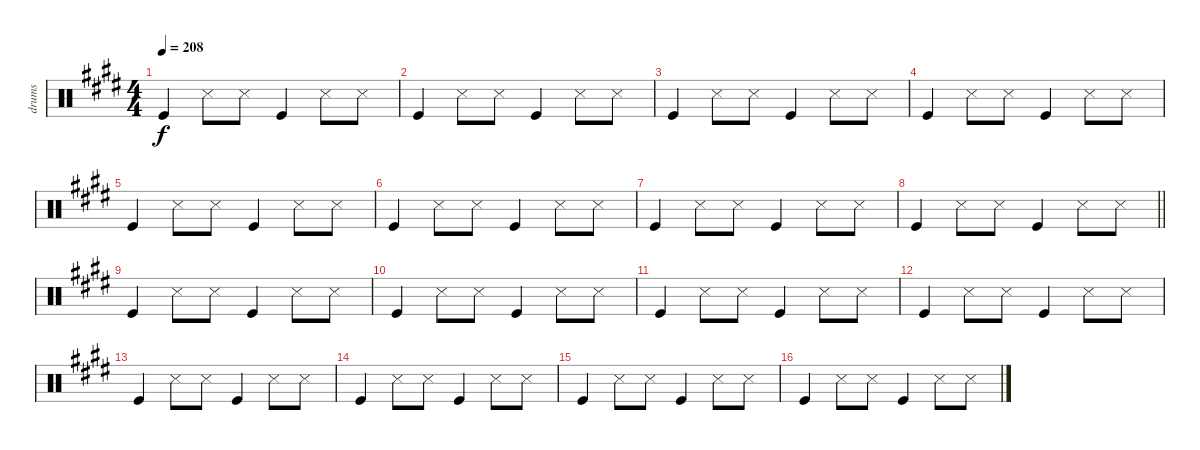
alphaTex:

\track ("drums" "drums") {instrument percussion}
\staff {score}
\articulation defaults
\ts (4 4)
\tempo 208
\clef neutral
\ks e "Kick (hit)".4{dy f} "Snare (side stick) 3".8 "Snare (side stick) 3".8 "Kick (hit)".4 "Snare (side stick) 3".8 "Snare (side stick) 3".8
|
"Kick (hit)".4 "Snare (side stick) 3".8 "Snare (side stick) 3".8 "Kick (hit)".4 "Snare (side stick) 3".8 "Snare (side stick) 3".8 |
"Kick (hit)".4 "Snare (side stick) 3".8 "Snare (side stick) 3".8 "Kick (hit)".4 "Snare (side stick) 3".8 "Snare (side stick) 3".8 |
"Kick (hit)".4 "Snare (side stick) 3".8 "Snare (side stick) 3".8 "Kick (hit)".4 "Snare (side stick) 3".8 "Snare (side stick) 3".8 |
"Kick (hit)".4 "Snare (side stick) 3".8 "Snare (side stick) 3".8 "Kick (hit)".4 "Snare (side stick) 3".8 "Snare (side stick) 3".8 |
"Kick (hit)".4 "Snare (side stick) 3".8 "Snare (side stick) 3".8 "Kick (hit)".4 "Snare (side stick) 3".8 "Snare (side stick) 3".8 |
"Kick (hit)".4 "Snare (side stick) 3".8 "Snare (side stick) 3".8 "Kick (hit)".4 "Snare (side stick) 3".8 "Snare (side stick) 3".8 |
\barLineRight lightlight "Kick (hit)".4 "Snare (side stick) 3".8 "Snare (side stick) 3".8 "Kick (hit)".4 "Snare (side stick) 3".8 "Snare (side stick) 3".8
|
"Kick (hit)".4 "Snare (side stick) 3".8 "Snare (side stick) 3".8 "Kick (hit)".4 "Snare (side stick) 3".8 "Snare (side stick) 3".8 |
"Kick (hit)".4 "Snare (side stick) 3".8 "Snare (side stick) 3".8 "Kick (hit)".4 "Snare (side stick) 3".8 "Snare (side stick) 3".8 |
"Kick (hit)".4 "Snare (side stick) 3".8 "Snare (side stick) 3".8 "Kick (hit)".4 "Snare (side stick) 3".8 "Snare (side stick) 3".8 |
"Kick (hit)".4 "Snare (side stick) 3".8 "Snare (side stick) 3".8 "Kick (hit)".4 "Snare (side stick) 3".8 "Snare (side stick) 3".8 |
"Kick (hit)".4 "Snare (side stick) 3".8 "Snare (side stick) 3".8 "Kick (hit)".4 "Snare (side stick) 3".8 "Snare (side stick) 3".8 |
"Kick (hit)".4 "Snare (side stick) 3".8 "Snare (side stick) 3".8 "Kick (hit)".4 "Snare (side stick) 3".8 "Snare (side stick) 3".8 |
"Kick (hit)".4 "Snare (side stick) 3".8 "Snare (side stick) 3".8 "Kick (hit)".4 "Snare (side stick) 3".8 "Snare (side stick) 3".8 |
"Kick (hit)".4 "Snare (side stick) 3".8 "Snare (side stick) 3".8 "Kick (hit)".4 "Snare (side stick) 3".8 "Snare (side stick) 3".8
